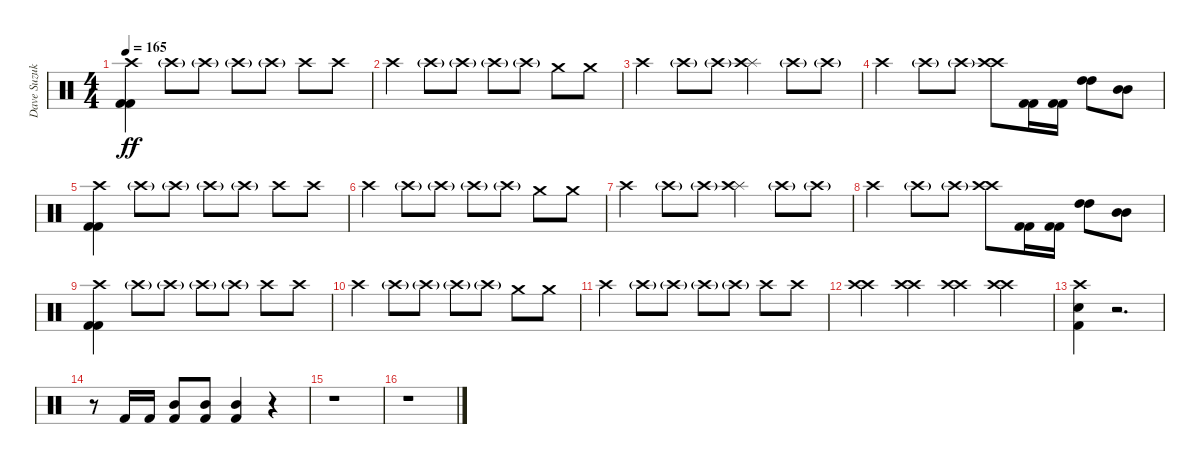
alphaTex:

\track ("Dave Suzuki - Drums" "Dave Suzuk") {instrument percussion}
\staff {score}
\articulation defaults
\ts (4 4)
\tempo 165
\clef neutral
\ks c
("Crash high (hit)" "Kick (hit) 2" "Kick (hit) 2").4{dy ff} "Crash high (hit)"{g}.8 "Crash high (hit)"{g}.8 "Crash high (hit)"{g}.8 "Crash high (hit)"{g}.8 "Crash high (hit)".8 "Crash high (hit)".8 |
"Crash high (hit)".4 "Crash high (hit)"{g}.8 "Crash high (hit)"{g}.8 "Crash high (hit)"{g}.8 "Crash high (hit)"{g}.8 "Crash medium (hit)".8 "Crash medium (hit)".8 |
"Crash high (hit)".4 "Crash high (hit)"{g}.8 "Crash high (hit)"{g}.8 ("Splash (hit)" "Crash high (hit)").4 "Crash high (hit)"{g}.8 "Crash high (hit)"{g}.8 |
"Crash high (hit)".4 "Crash high (hit)"{g}.8 "Crash high (hit)"{g}.8 ("Crash high (hit)" "Crash high (hit)").8 ("Kick (hit) 2" "Kick (hit) 2").16 ("Kick (hit) 2" "Kick (hit) 2").16 ("High Tom (hit)" "High Tom (hit)").8 ("Mid Tom (hit)" "Mid Tom (hit)").8 |
("Crash high (hit)" "Kick (hit) 2" "Kick (hit) 2").4 "Crash high (hit)"{g}.8 "Crash high (hit)"{g}.8 "Crash high (hit)"{g}.8 "Crash high (hit)"{g}.8 "Crash high (hit)".8 "Crash high (hit)".8 |
"Crash high (hit)".4 "Crash high (hit)"{g}.8 "Crash high (hit)"{g}.8 "Crash high (hit)"{g}.8 "Crash high (hit)"{g}.8 "Crash medium (hit)".8 "Crash medium (hit)".8 |
"Crash high (hit)".4 "Crash high (hit)"{g}.8 "Crash high (hit)"{g}.8 ("Splash (hit)" "Crash high (hit)").4 "Crash high (hit)"{g}.8 "Crash high (hit)"{g}.8 |
"Crash high (hit)".4 "Crash high (hit)"{g}.8 "Crash high (hit)"{g}.8 ("Crash high (hit)" "Crash high (hit)").8 ("Kick (hit) 2" "Kick (hit) 2").16 ("Kick (hit) 2" "Kick (hit) 2").16 ("High Tom (hit)" "High Tom (hit)").8 ("Mid Tom (hit)" "Mid Tom (hit)").8 |
("Crash high (hit)" "Kick (hit) 2" "Kick (hit) 2").4 "Crash high (hit)"{g}.8 "Crash high (hit)"{g}.8 "Crash high (hit)"{g}.8 "Crash high (hit)"{g}.8 "Crash high (hit)".8 "Crash high (hit)".8 |
"Crash high (hit)".4 "Crash high (hit)"{g}.8 "Crash high (hit)"{g}.8 "Crash high (hit)"{g}.8 "Crash high (hit)"{g}.8 "Crash medium (hit)".8 "Crash medium (hit)".8 |
"Crash high (hit)".4 "Crash high (hit)"{g}.8 "Crash high (hit)"{g}.8 "Crash high (hit)"{g}.8 "Crash high (hit)"{g}.8 "Crash high (hit)".8 "Crash high (hit)".8 |
("Crash high (hit)" "Crash high (hit)").4 ("Crash high (hit)" "Crash high (hit)").4 ("Crash high (hit)" "Crash high (hit)").4 ("Crash high (hit)" "Crash high (hit)").4 |
("Crash high (hit)" "Electric Snare (hit)" "Kick (hit) 2").4 r.2{d} |
r.8 "Kick (hit) 2".16 "Kick (hit) 2".16 ("Mid Tom (hit)" "Kick (hit) 2").8 ("Mid Tom (hit)" "Kick (hit) 2").8 ("Mid Tom (hit)" "Kick (hit) 2").4 r.4 |
r.1 |
r.1
